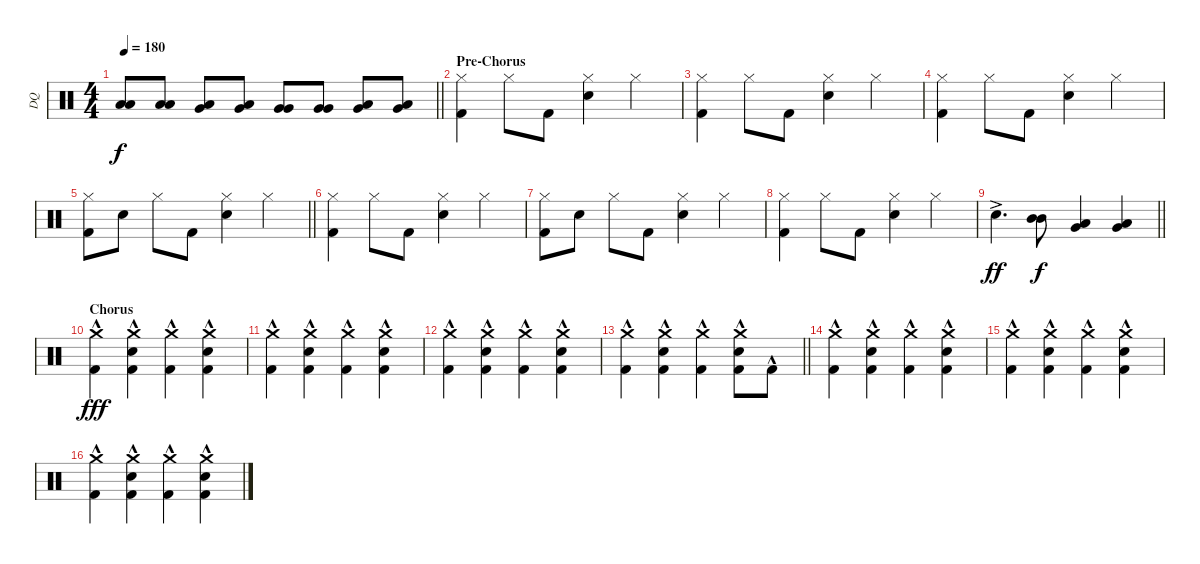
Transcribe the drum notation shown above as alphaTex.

\track ("DQ" "DQ") {instrument percussion}
\staff {score}
\articulation defaults
\ts (4 4)
\section ("" "")
\tempo 180
\clef neutral
\barLineRight lightlight
\ks c
("Low Floor Tom (hit)" "Low Floor Tom (hit)").8{dy f} ("Low Floor Tom (hit)" "Low Floor Tom (hit)").8 ("Low Floor Tom (hit)" "Very Low Tom (hit)").8 ("Low Floor Tom (hit)" "Very Low Tom (hit)").8 ("Very Low Tom (hit)" "Very Low Tom (hit)").8 ("Very Low Tom (hit)" "Very Low Tom (hit)").8 ("Very Low Tom (hit)" "Low Tom (hit)").8 ("Very Low Tom (hit)" "Low Tom (hit)").8 |
\section ("" "Pre-Chorus")
("Kick (hit) 2" "Hi-Hat (closed)").4 "Hi-Hat (closed)".8 "Kick (hit) 2".8 ("Snare (hit) 2" "Hi-Hat (closed)").4 "Hi-Hat (closed)".4 |
("Kick (hit) 2" "Hi-Hat (closed)").4 "Hi-Hat (closed)".8 "Kick (hit) 2".8 ("Snare (hit) 2" "Hi-Hat (closed)").4 "Hi-Hat (closed)".4 |
("Kick (hit) 2" "Hi-Hat (closed)").4 "Hi-Hat (closed)".8 "Kick (hit) 2".8 ("Snare (hit) 2" "Hi-Hat (closed)").4 "Hi-Hat (closed)".4 |
\barLineRight lightlight
("Kick (hit) 2" "Hi-Hat (closed)").8 "Snare (hit) 2".8 "Hi-Hat (closed)".8 "Kick (hit) 2".8 ("Snare (hit) 2" "Hi-Hat (closed)").4 "Hi-Hat (closed)".4 |
\section ("" "")
("Kick (hit) 2" "Hi-Hat (closed)").4 "Hi-Hat (closed)".8 "Kick (hit) 2".8 ("Snare (hit) 2" "Hi-Hat (closed)").4 "Hi-Hat (closed)".4 |
("Kick (hit) 2" "Hi-Hat (closed)").8 "Snare (hit) 2".8 "Hi-Hat (closed)".8 "Kick (hit) 2".8 ("Snare (hit) 2" "Hi-Hat (closed)").4 "Hi-Hat (closed)".4 |
("Kick (hit) 2" "Hi-Hat (closed)").4 "Hi-Hat (closed)".8 "Kick (hit) 2".8 ("Snare (hit) 2" "Hi-Hat (closed)").4 "Hi-Hat (closed)".4 |
\barLineRight lightlight "Snare (hit) 2"{ac}.4{d dy ff}
("Mid Tom (hit)" "Mid Tom (hit)").8{dy f} ("Low Tom (hit)" "Very Low Tom (hit)").4 ("Very Low Tom (hit)" "Low Floor Tom (hit)").4 |
\section ("" "Chorus")
("Kick (hit) 2"{hac} "Crash medium (hit)").4{dy fff} ("Kick (hit) 2"{hac} "Snare (hit) 2"{hac} "Crash medium (hit)").4 ("Kick (hit) 2"{hac} "Crash medium (hit)").4 ("Kick (hit) 2"{hac} "Snare (hit) 2"{hac} "Crash medium (hit)").4 |
("Kick (hit) 2"{hac} "Crash medium (hit)").4 ("Kick (hit) 2"{hac} "Snare (hit) 2"{hac} "Crash medium (hit)").4 ("Kick (hit) 2"{hac} "Crash medium (hit)").4 ("Kick (hit) 2"{hac} "Snare (hit) 2"{hac} "Crash medium (hit)").4 |
("Kick (hit) 2"{hac} "Crash medium (hit)").4 ("Kick (hit) 2"{hac} "Snare (hit) 2"{hac} "Crash medium (hit)").4 ("Kick (hit) 2"{hac} "Crash medium (hit)").4 ("Kick (hit) 2"{hac} "Snare (hit) 2"{hac} "Crash medium (hit)").4 |
\barLineRight lightlight
("Kick (hit) 2"{hac} "Crash medium (hit)").4 ("Kick (hit) 2"{hac} "Snare (hit) 2"{hac} "Crash medium (hit)").4 ("Kick (hit) 2"{hac} "Crash medium (hit)").4 ("Kick (hit) 2"{hac} "Snare (hit) 2"{hac} "Crash medium (hit)").8 "Kick (hit) 2"{hac}.8 |
\section ("" "")
("Kick (hit) 2"{hac} "Crash medium (hit)").4 ("Kick (hit) 2"{hac} "Snare (hit) 2"{hac} "Crash medium (hit)").4 ("Kick (hit) 2"{hac} "Crash medium (hit)").4 ("Kick (hit) 2"{hac} "Snare (hit) 2"{hac} "Crash medium (hit)").4 |
("Kick (hit) 2"{hac} "Crash medium (hit)").4 ("Kick (hit) 2"{hac} "Snare (hit) 2"{hac} "Crash medium (hit)").4 ("Kick (hit) 2"{hac} "Crash medium (hit)").4 ("Kick (hit) 2"{hac} "Snare (hit) 2"{hac} "Crash medium (hit)").4 |
("Kick (hit) 2"{hac} "Crash medium (hit)").4 ("Kick (hit) 2"{hac} "Snare (hit) 2"{hac} "Crash medium (hit)").4 ("Kick (hit) 2"{hac} "Crash medium (hit)").4 ("Kick (hit) 2"{hac} "Snare (hit) 2"{hac} "Crash medium (hit)").4
